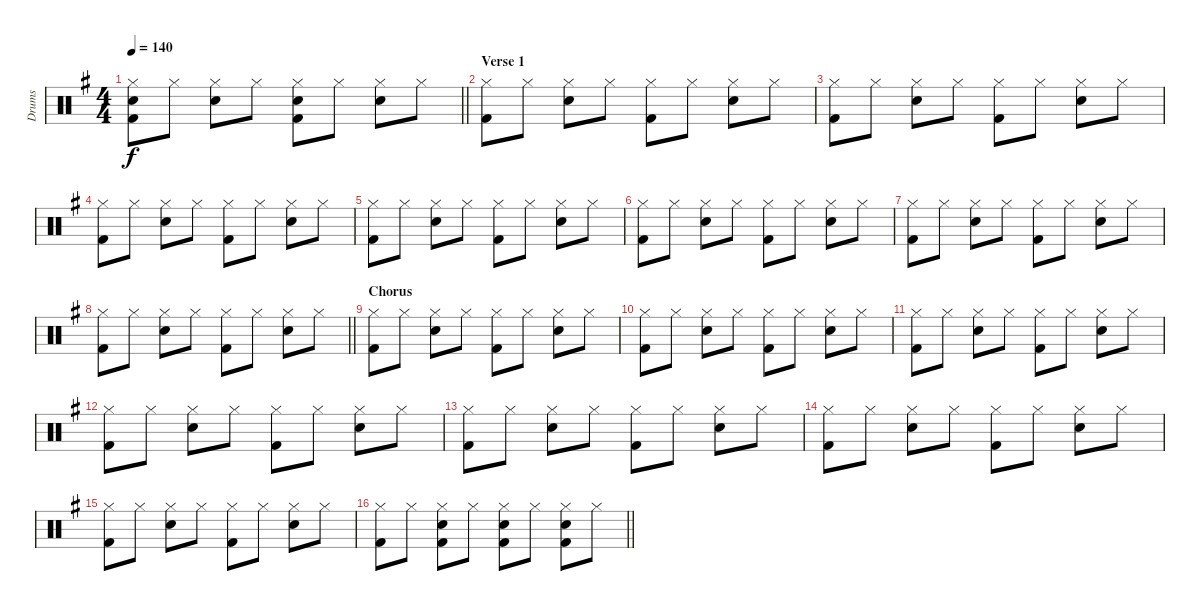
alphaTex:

\track ("Drums" "Drums") {instrument percussion}
\staff {score}
\articulation defaults
\ts (4 4)
\tempo 140
\clef neutral
\barLineRight lightlight
\ks g
("Hi-Hat (closed)" "Snare (hit) 2" "Kick (hit) 2").8{dy f} "Hi-Hat (closed)".8 ("Hi-Hat (closed)" "Snare (hit) 2").8 "Hi-Hat (closed)".8 ("Hi-Hat (closed)" "Snare (hit) 2" "Kick (hit) 2").8 "Hi-Hat (closed)".8 ("Hi-Hat (closed)" "Snare (hit) 2").8 "Hi-Hat (closed)".8 |
\section ("" "Verse 1")
("Hi-Hat (closed)" "Kick (hit) 2").8 "Hi-Hat (closed)".8 ("Hi-Hat (closed)" "Snare (hit) 2").8 "Hi-Hat (closed)".8 ("Hi-Hat (closed)" "Kick (hit) 2").8 "Hi-Hat (closed)".8 ("Hi-Hat (closed)" "Snare (hit) 2").8 "Hi-Hat (closed)".8 |
("Hi-Hat (closed)" "Kick (hit) 2").8 "Hi-Hat (closed)".8 ("Hi-Hat (closed)" "Snare (hit) 2").8 "Hi-Hat (closed)".8 ("Hi-Hat (closed)" "Kick (hit) 2").8 "Hi-Hat (closed)".8 ("Hi-Hat (closed)" "Snare (hit) 2").8 "Hi-Hat (closed)".8 |
("Hi-Hat (closed)" "Kick (hit) 2").8 "Hi-Hat (closed)".8 ("Hi-Hat (closed)" "Snare (hit) 2").8 "Hi-Hat (closed)".8 ("Hi-Hat (closed)" "Kick (hit) 2").8 "Hi-Hat (closed)".8 ("Hi-Hat (closed)" "Snare (hit) 2").8 "Hi-Hat (closed)".8 |
("Hi-Hat (closed)" "Kick (hit) 2").8 "Hi-Hat (closed)".8 ("Hi-Hat (closed)" "Snare (hit) 2").8 "Hi-Hat (closed)".8 ("Hi-Hat (closed)" "Kick (hit) 2").8 "Hi-Hat (closed)".8 ("Hi-Hat (closed)" "Snare (hit) 2").8 "Hi-Hat (closed)".8 |
("Hi-Hat (closed)" "Kick (hit) 2").8 "Hi-Hat (closed)".8 ("Hi-Hat (closed)" "Snare (hit) 2").8 "Hi-Hat (closed)".8 ("Hi-Hat (closed)" "Kick (hit) 2").8 "Hi-Hat (closed)".8 ("Hi-Hat (closed)" "Snare (hit) 2").8 "Hi-Hat (closed)".8 |
("Hi-Hat (closed)" "Kick (hit) 2").8 "Hi-Hat (closed)".8 ("Hi-Hat (closed)" "Snare (hit) 2").8 "Hi-Hat (closed)".8 ("Hi-Hat (closed)" "Kick (hit) 2").8 "Hi-Hat (closed)".8 ("Hi-Hat (closed)" "Snare (hit) 2").8 "Hi-Hat (closed)".8 |
\barLineRight lightlight
("Hi-Hat (closed)" "Kick (hit) 2").8 "Hi-Hat (closed)".8 ("Hi-Hat (closed)" "Snare (hit) 2").8 "Hi-Hat (closed)".8 ("Hi-Hat (closed)" "Kick (hit) 2").8 "Hi-Hat (closed)".8 ("Hi-Hat (closed)" "Snare (hit) 2").8 "Hi-Hat (closed)".8 |
\section ("" "Chorus")
("Hi-Hat (closed)" "Kick (hit) 2").8 "Hi-Hat (closed)".8 ("Hi-Hat (closed)" "Snare (hit) 2").8 "Hi-Hat (closed)".8 ("Hi-Hat (closed)" "Kick (hit) 2").8 "Hi-Hat (closed)".8 ("Hi-Hat (closed)" "Snare (hit) 2").8 "Hi-Hat (closed)".8 |
("Hi-Hat (closed)" "Kick (hit) 2").8 "Hi-Hat (closed)".8 ("Hi-Hat (closed)" "Snare (hit) 2").8 "Hi-Hat (closed)".8 ("Hi-Hat (closed)" "Kick (hit) 2").8 "Hi-Hat (closed)".8 ("Hi-Hat (closed)" "Snare (hit) 2").8 "Hi-Hat (closed)".8 |
("Hi-Hat (closed)" "Kick (hit) 2").8 "Hi-Hat (closed)".8 ("Hi-Hat (closed)" "Snare (hit) 2").8 "Hi-Hat (closed)".8 ("Hi-Hat (closed)" "Kick (hit) 2").8 "Hi-Hat (closed)".8 ("Hi-Hat (closed)" "Snare (hit) 2").8 "Hi-Hat (closed)".8 |
("Hi-Hat (closed)" "Kick (hit) 2").8 "Hi-Hat (closed)".8 ("Hi-Hat (closed)" "Snare (hit) 2").8 "Hi-Hat (closed)".8 ("Hi-Hat (closed)" "Kick (hit) 2").8 "Hi-Hat (closed)".8 ("Hi-Hat (closed)" "Snare (hit) 2").8 "Hi-Hat (closed)".8 |
("Hi-Hat (closed)" "Kick (hit) 2").8 "Hi-Hat (closed)".8 ("Hi-Hat (closed)" "Snare (hit) 2").8 "Hi-Hat (closed)".8 ("Hi-Hat (closed)" "Kick (hit) 2").8 "Hi-Hat (closed)".8 ("Hi-Hat (closed)" "Snare (hit) 2").8 "Hi-Hat (closed)".8 |
("Hi-Hat (closed)" "Kick (hit) 2").8 "Hi-Hat (closed)".8 ("Hi-Hat (closed)" "Snare (hit) 2").8 "Hi-Hat (closed)".8 ("Hi-Hat (closed)" "Kick (hit) 2").8 "Hi-Hat (closed)".8 ("Hi-Hat (closed)" "Snare (hit) 2").8 "Hi-Hat (closed)".8 |
("Hi-Hat (closed)" "Kick (hit) 2").8 "Hi-Hat (closed)".8 ("Hi-Hat (closed)" "Snare (hit) 2").8 "Hi-Hat (closed)".8 ("Hi-Hat (closed)" "Kick (hit) 2").8 "Hi-Hat (closed)".8 ("Hi-Hat (closed)" "Snare (hit) 2").8 "Hi-Hat (closed)".8 |
\barLineRight lightlight
("Hi-Hat (closed)" "Kick (hit) 2").8 "Hi-Hat (closed)".8 ("Hi-Hat (closed)" "Snare (hit) 2" "Kick (hit) 2").8 "Hi-Hat (closed)".8 ("Hi-Hat (closed)" "Snare (hit) 2" "Kick (hit) 2").8 "Hi-Hat (closed)".8 ("Hi-Hat (closed)" "Snare (hit) 2" "Kick (hit) 2").8 "Hi-Hat (closed)".8
